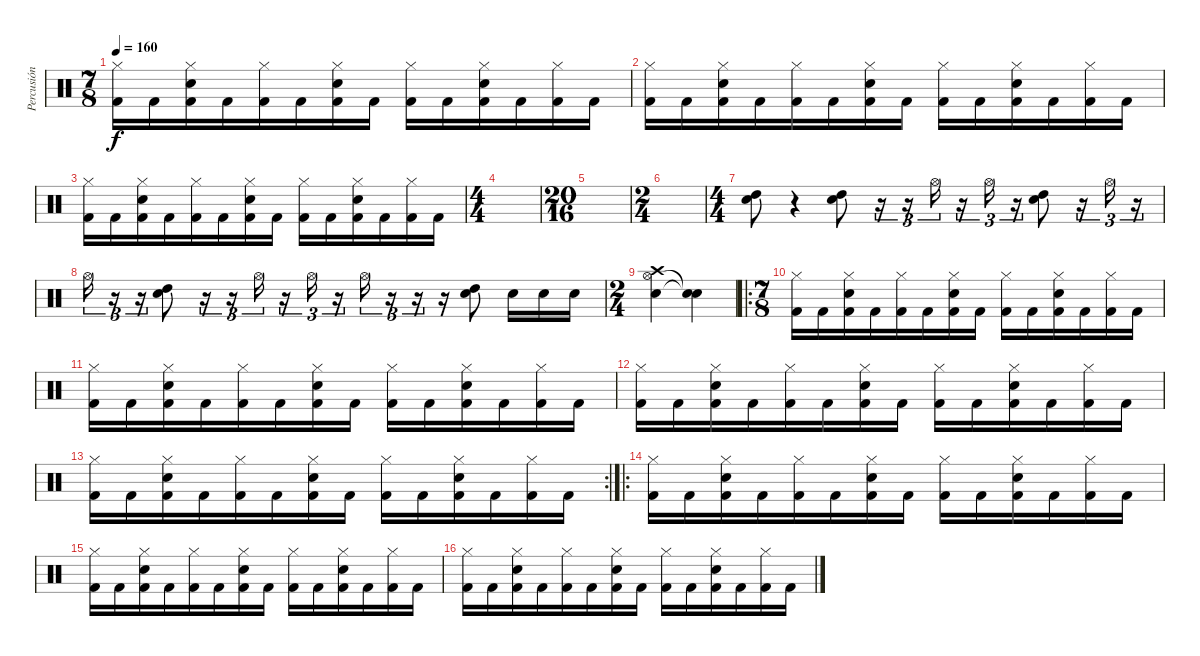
\track ("Percusión" "Percusión") {instrument percussion}
\staff {score}
\articulation defaults
\ts (7 8)
\tempo 160
\clef neutral
\ks c
("Kick (hit) 2" "Hi-Hat (closed)").16{dy f} "Kick (hit) 2".16 ("Kick (hit) 2" "Snare (hit) 2" "Hi-Hat (closed)").16 "Kick (hit) 2".16 ("Kick (hit) 2" "Hi-Hat (closed)").16 "Kick (hit) 2".16 ("Kick (hit) 2" "Snare (hit) 2" "Hi-Hat (closed)").16 "Kick (hit) 2".16 ("Kick (hit) 2" "Hi-Hat (closed)").16 "Kick (hit) 2".16 ("Kick (hit) 2" "Snare (hit) 2" "Hi-Hat (closed)").16 "Kick (hit) 2".16 ("Kick (hit) 2" "Hi-Hat (closed)").16 "Kick (hit) 2".16 |
("Kick (hit) 2" "Hi-Hat (closed)").16 "Kick (hit) 2".16 ("Kick (hit) 2" "Snare (hit) 2" "Hi-Hat (closed)").16 "Kick (hit) 2".16 ("Kick (hit) 2" "Hi-Hat (closed)").16 "Kick (hit) 2".16 ("Kick (hit) 2" "Snare (hit) 2" "Hi-Hat (closed)").16 "Kick (hit) 2".16 ("Kick (hit) 2" "Hi-Hat (closed)").16 "Kick (hit) 2".16 ("Kick (hit) 2" "Snare (hit) 2" "Hi-Hat (closed)").16 "Kick (hit) 2".16 ("Kick (hit) 2" "Hi-Hat (closed)").16 "Kick (hit) 2".16 |
("Kick (hit) 2" "Hi-Hat (closed)").16 "Kick (hit) 2".16 ("Kick (hit) 2" "Snare (hit) 2" "Hi-Hat (closed)").16 "Kick (hit) 2".16 ("Kick (hit) 2" "Hi-Hat (closed)").16 "Kick (hit) 2".16 ("Kick (hit) 2" "Snare (hit) 2" "Hi-Hat (closed)").16 "Kick (hit) 2".16 ("Kick (hit) 2" "Hi-Hat (closed)").16 "Kick (hit) 2".16 ("Kick (hit) 2" "Snare (hit) 2" "Hi-Hat (closed)").16 "Kick (hit) 2".16 ("Kick (hit) 2" "Hi-Hat (closed)").16 "Kick (hit) 2".16 |
\ts (4 4)
|
\ts (20 16)
|
\ts (2 4)
|
\ts (4 4)
("High Tom (hit)" "Snare (hit) 2").8 r.4 ("Snare (hit) 2" "High Tom (hit)").8 r.16{tu (3 2)} r.16{tu (3 2)} "Hi-Hat (open)".16{tu (3 2)} r.16{tu (3 2)} "Hi-Hat (open)".16{tu (3 2)} r.16{tu (3 2)} ("Snare (hit) 2" "High Tom (hit)").8 r.16{tu (3 2)} "Hi-Hat (open)".16{tu (3 2)} r.16{tu (3 2)} |
"Hi-Hat (open)".16{tu (3 2)} r.16{tu (3 2)} r.16{tu (3 2)} ("Snare (hit) 2" "High Tom (hit)").8 r.16{tu (3 2)} r.16{tu (3 2)} "Hi-Hat (open)".16{tu (3 2)} r.16{tu (3 2)} "Hi-Hat (open)".16{tu (3 2)} r.16{tu (3 2)} "Hi-Hat (open)".16{tu (3 2)} r.16{tu (3 2)} r.16{tu (3 2)} r.16 ("High Tom (hit)" "Snare (hit) 2").8 "Snare (hit) 2".16 "Snare (hit) 2".16 "Snare (hit) 2".16 |
\ts (2 4)
("Snare (hit) 2" "Hi-Hat (open)" "Crash high (hit)").4 ("Snare (hit)"{t} "Snare (hit)"{t}).4 |
\ro
\ts (7 8)
("Kick (hit) 2" "Hi-Hat (closed)").16 "Kick (hit) 2".16 ("Kick (hit) 2" "Snare (hit) 2" "Hi-Hat (closed)").16 "Kick (hit) 2".16 ("Kick (hit) 2" "Hi-Hat (closed)").16 "Kick (hit) 2".16 ("Kick (hit) 2" "Snare (hit) 2" "Hi-Hat (closed)").16 "Kick (hit) 2".16 ("Kick (hit) 2" "Hi-Hat (closed)").16 "Kick (hit) 2".16 ("Kick (hit) 2" "Snare (hit) 2" "Hi-Hat (closed)").16 "Kick (hit) 2".16 ("Kick (hit) 2" "Hi-Hat (closed)").16 "Kick (hit) 2".16 |
("Kick (hit) 2" "Hi-Hat (closed)").16 "Kick (hit) 2".16 ("Kick (hit) 2" "Snare (hit) 2" "Hi-Hat (closed)").16 "Kick (hit) 2".16 ("Kick (hit) 2" "Hi-Hat (closed)").16 "Kick (hit) 2".16 ("Kick (hit) 2" "Snare (hit) 2" "Hi-Hat (closed)").16 "Kick (hit) 2".16 ("Kick (hit) 2" "Hi-Hat (closed)").16 "Kick (hit) 2".16 ("Kick (hit) 2" "Snare (hit) 2" "Hi-Hat (closed)").16 "Kick (hit) 2".16 ("Kick (hit) 2" "Hi-Hat (closed)").16 "Kick (hit) 2".16 |
("Kick (hit) 2" "Hi-Hat (closed)").16 "Kick (hit) 2".16 ("Kick (hit) 2" "Snare (hit) 2" "Hi-Hat (closed)").16 "Kick (hit) 2".16 ("Kick (hit) 2" "Hi-Hat (closed)").16 "Kick (hit) 2".16 ("Kick (hit) 2" "Snare (hit) 2" "Hi-Hat (closed)").16 "Kick (hit) 2".16 ("Kick (hit) 2" "Hi-Hat (closed)").16 "Kick (hit) 2".16 ("Kick (hit) 2" "Snare (hit) 2" "Hi-Hat (closed)").16 "Kick (hit) 2".16 ("Kick (hit) 2" "Hi-Hat (closed)").16 "Kick (hit) 2".16 |
\rc 2
("Kick (hit) 2" "Hi-Hat (closed)").16 "Kick (hit) 2".16 ("Kick (hit) 2" "Snare (hit) 2" "Hi-Hat (closed)").16 "Kick (hit) 2".16 ("Kick (hit) 2" "Hi-Hat (closed)").16 "Kick (hit) 2".16 ("Kick (hit) 2" "Snare (hit) 2" "Hi-Hat (closed)").16 "Kick (hit) 2".16 ("Kick (hit) 2" "Hi-Hat (closed)").16 "Kick (hit) 2".16 ("Kick (hit) 2" "Snare (hit) 2" "Hi-Hat (closed)").16 "Kick (hit) 2".16 ("Kick (hit) 2" "Hi-Hat (closed)").16 "Kick (hit) 2".16 |
\ro
("Kick (hit) 2" "Hi-Hat (closed)").16 "Kick (hit) 2".16 ("Kick (hit) 2" "Snare (hit) 2" "Hi-Hat (closed)").16 "Kick (hit) 2".16 ("Kick (hit) 2" "Hi-Hat (closed)").16 "Kick (hit) 2".16 ("Kick (hit) 2" "Snare (hit) 2" "Hi-Hat (closed)").16 "Kick (hit) 2".16 ("Kick (hit) 2" "Hi-Hat (closed)").16 "Kick (hit) 2".16 ("Kick (hit) 2" "Snare (hit) 2" "Hi-Hat (closed)").16 "Kick (hit) 2".16 ("Kick (hit) 2" "Hi-Hat (closed)").16 "Kick (hit) 2".16 |
("Kick (hit) 2" "Hi-Hat (closed)").16 "Kick (hit) 2".16 ("Kick (hit) 2" "Snare (hit) 2" "Hi-Hat (closed)").16 "Kick (hit) 2".16 ("Kick (hit) 2" "Hi-Hat (closed)").16 "Kick (hit) 2".16 ("Kick (hit) 2" "Snare (hit) 2" "Hi-Hat (closed)").16 "Kick (hit) 2".16 ("Kick (hit) 2" "Hi-Hat (closed)").16 "Kick (hit) 2".16 ("Kick (hit) 2" "Snare (hit) 2" "Hi-Hat (closed)").16 "Kick (hit) 2".16 ("Kick (hit) 2" "Hi-Hat (closed)").16 "Kick (hit) 2".16 |
("Kick (hit) 2" "Hi-Hat (closed)").16 "Kick (hit) 2".16 ("Kick (hit) 2" "Snare (hit) 2" "Hi-Hat (closed)").16 "Kick (hit) 2".16 ("Kick (hit) 2" "Hi-Hat (closed)").16 "Kick (hit) 2".16 ("Kick (hit) 2" "Snare (hit) 2" "Hi-Hat (closed)").16 "Kick (hit) 2".16 ("Kick (hit) 2" "Hi-Hat (closed)").16 "Kick (hit) 2".16 ("Kick (hit) 2" "Snare (hit) 2" "Hi-Hat (closed)").16 "Kick (hit) 2".16 ("Kick (hit) 2" "Hi-Hat (closed)").16 "Kick (hit) 2".16
